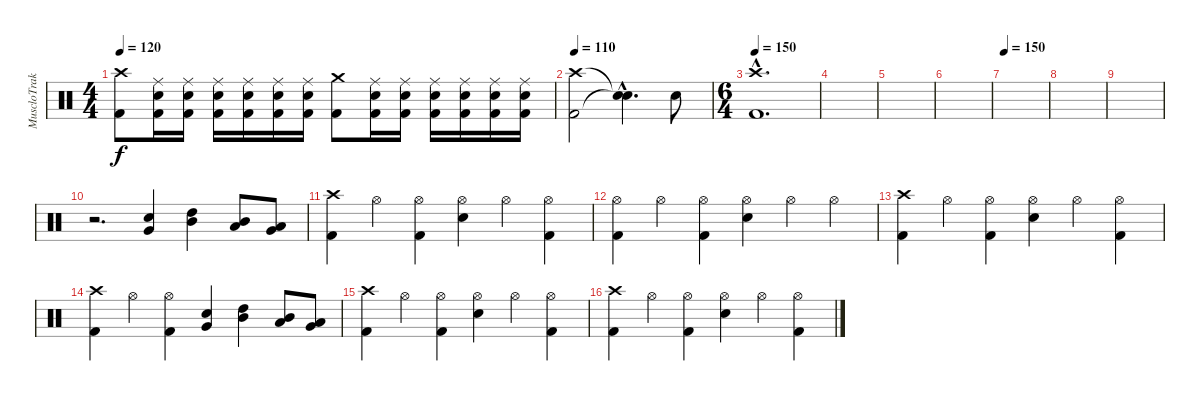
\track ("MuscloTraktor" "MuscloTrak") {instrument percussion}
\staff {score}
\articulation defaults
\ts (4 4)
\tempo 120
\clef neutral
\ks c
("Kick (hit) 2" "Crash high (hit)").8{dy f} ("Kick (hit) 2" "Electric Snare (hit)" "Ride (middle)").16 ("Kick (hit) 2" "Electric Snare (hit)" "Ride (middle)").16 ("Kick (hit) 2" "Electric Snare (hit)" "Ride (middle)").16 ("Kick (hit) 2" "Electric Snare (hit)" "Ride (middle)").16 ("Kick (hit) 2" "Electric Snare (hit)" "Ride (middle)").16 ("Kick (hit) 2" "Electric Snare (hit)" "Ride (middle)").16 ("Kick (hit) 2" "Crash medium (hit)").8 ("Kick (hit) 2" "Electric Snare (hit)" "Ride (middle)").16 ("Kick (hit) 2" "Electric Snare (hit)" "Ride (middle)").16 ("Kick (hit) 2" "Electric Snare (hit)" "Ride (middle)").16 ("Kick (hit) 2" "Electric Snare (hit)" "Ride (middle)").16 ("Kick (hit) 2" "Electric Snare (hit)" "Ride (middle)").16 ("Kick (hit) 2" "Electric Snare (hit)" "Ride (middle)").16 |
\tempo 110
("Kick (hit) 2" "Crash high (hit)").2 ("Snare (hit)"{hac t} "Snare (hit)"{hac t}).4{d} "Electric Snare (hit)".8 |
\ts (6 4)
\tempo 150
("Kick (hit) 2"{hac} "Crash high (hit)"{hac}).1{d} |
|
|
|
\tempo 150
|
|
|
r.2{d} ("Very Low Tom (hit)" "Electric Snare (hit)").4 ("Mid Tom (hit)" "High Tom (hit)").4 ("Low Tom (hit)" "Mid Tom (hit)").8 ("Very Low Tom (hit)" "Low Tom (hit)").8 |
("Kick (hit) 2" "Crash high (hit)").4 "Hi-Hat (open)".4 ("Kick (hit) 2" "Hi-Hat (open)").4 ("Electric Snare (hit)" "Hi-Hat (open)").4 "Hi-Hat (open)".4 ("Kick (hit) 2" "Hi-Hat (open)").4 |
("Kick (hit) 2" "Hi-Hat (open)").4 "Hi-Hat (open)".4 ("Kick (hit) 2" "Hi-Hat (open)").4 ("Electric Snare (hit)" "Hi-Hat (open)").4 "Hi-Hat (open)".4 "Hi-Hat (open)".4 |
("Kick (hit) 2" "Crash high (hit)").4 "Hi-Hat (open)".4 ("Kick (hit) 2" "Hi-Hat (open)").4 ("Electric Snare (hit)" "Hi-Hat (open)").4 "Hi-Hat (open)".4 ("Kick (hit) 2" "Hi-Hat (open)").4 |
("Kick (hit) 2" "Crash high (hit)").4 "Hi-Hat (open)".4 ("Kick (hit) 2" "Hi-Hat (open)").4 ("Very Low Tom (hit)" "Electric Snare (hit)").4 ("Mid Tom (hit)" "High Tom (hit)").4 ("Low Tom (hit)" "Mid Tom (hit)").8 ("Very Low Tom (hit)" "Low Tom (hit)").8 |
("Kick (hit) 2" "Crash high (hit)").4 "Hi-Hat (open)".4 ("Kick (hit) 2" "Hi-Hat (open)").4 ("Electric Snare (hit)" "Hi-Hat (open)").4 "Hi-Hat (open)".4 ("Kick (hit) 2" "Hi-Hat (open)").4 |
("Kick (hit) 2" "Crash high (hit)").4 "Hi-Hat (open)".4 ("Kick (hit) 2" "Hi-Hat (open)").4 ("Electric Snare (hit)" "Hi-Hat (open)").4 "Hi-Hat (open)".4 ("Kick (hit) 2" "Hi-Hat (open)").4
